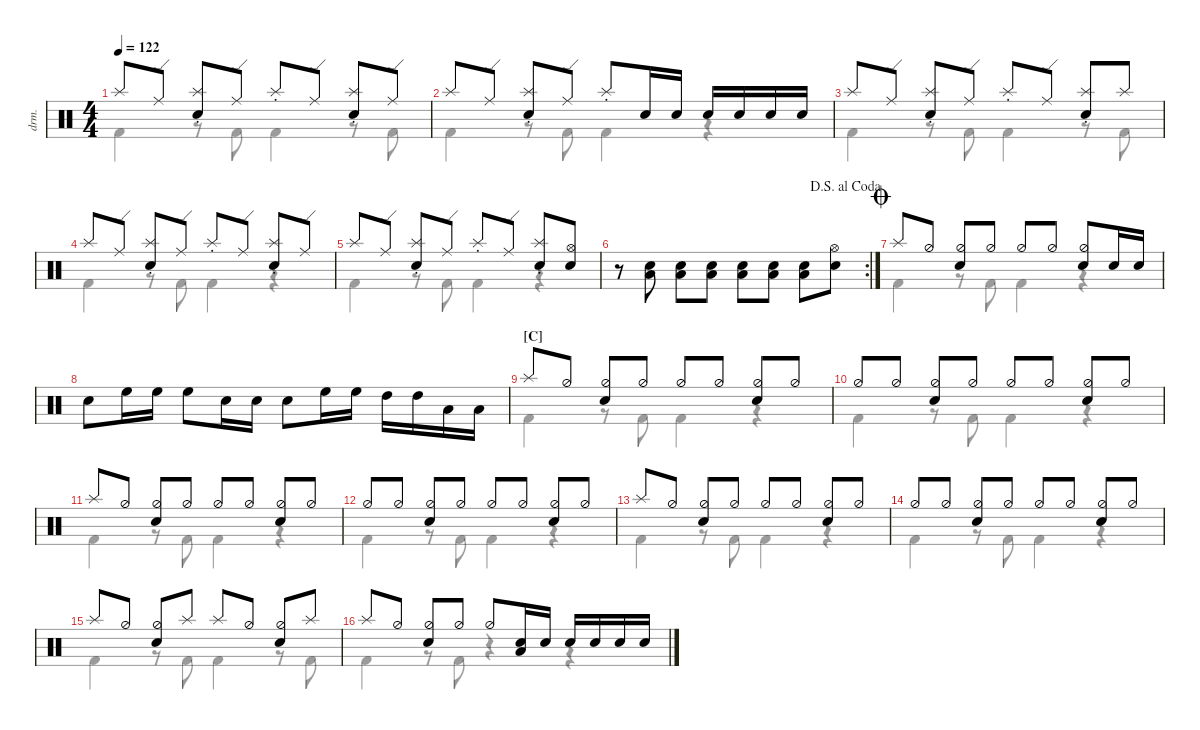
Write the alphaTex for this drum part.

\defaultSystemsLayout 4
\hideDynamics
\bracketExtendMode nobrackets
\track ("Drumkit" "drm.") {defaultSystemsLayout 4 instrument percussion}
\staff {score}
\articulation defaults
\voice
\ts (4 4)
\tempo 122
\clef neutral
\ks c "Splash (hit)".8{dy mf beam Up} "Ride (edge)".8{beam Up}
("Splash (choke)" "Snare (hit) 2").8{beam Up} "Ride (edge)".8{beam Up} "Splash (choke)".8{beam Up} "Ride (edge)".8{beam Up} ("Splash (choke)" "Snare (hit) 2").8{beam Up} "Ride (edge)".8{beam Up} |
"Splash (hit)".8{beam Up} "Ride (edge)".8{beam Up} ("Splash (choke)" "Snare (hit) 2").8{beam Up} "Ride (edge)".8{beam Up} "Splash (choke)".8{beam Up} "Snare (hit) 2".16{beam Up} "Snare (hit) 2".16{beam Up} "Snare (hit) 2".16{beam Up} "Snare (hit) 2".16{beam Up} "Snare (hit) 2".16{beam Up} "Snare (hit) 2".16{beam Up} |
"Splash (hit)".8{beam Up} "Ride (edge)".8{beam Up} ("Splash (choke)" "Snare (hit) 2").8{beam Up} "Ride (edge)".8{beam Up} "Splash (choke)".8{beam Up} "Ride (edge)".8{beam Up} ("Splash (choke)" "Snare (hit) 2").8{beam Up} "Splash (hit)".8{beam Up} |
"Splash (hit)".8{beam Up} "Ride (edge)".8{beam Up} ("Splash (choke)" "Snare (hit) 2").8{beam Up} "Ride (edge)".8{beam Up} "Splash (choke)".8{beam Up} "Ride (edge)".8{beam Up} ("Splash (choke)" "Snare (hit) 2").8{beam Up} "Ride (edge)".8{beam Up} |
"Splash (hit)".8{beam Up} "Ride (edge)".8{beam Up} ("Splash (choke)" "Snare (hit) 2").8{beam Up} "Ride (edge)".8{beam Up} "Splash (choke)".8{beam Up} "Ride (edge)".8{beam Up} ("Splash (choke)" "Snare (hit) 2").8{beam Up} ("Hi-Hat (open)" "Snare (hit) 2").8{beam Up} |
\rc 2
\jump dalsegnoalcoda
r.8{beam Down} ("Low Tom (hit)" "Snare (hit) 2").8{beam Down} ("Snare (hit) 2" "Low Tom (hit)").8{beam Down} ("Snare (hit) 2" "Low Tom (hit)").8{beam Down} ("Snare (hit) 2" "Low Tom (hit)").8{beam Down} ("Snare (hit) 2" "Low Tom (hit)").8{beam Down} ("Snare (hit) 2" "Low Tom (hit)").8{beam Down} ("Snare (hit) 2" "Hi-Hat (open)").8{beam Down} |
\jump coda "Splash (hit)".8{beam Up} "Hi-Hat (half)".8{beam Up}
("Hi-Hat (half)" "Snare (hit) 2").8{beam Up} "Hi-Hat (half)".8{beam Up} "Hi-Hat (half)".8{beam Up} "Hi-Hat (half)".8{beam Up} ("Hi-Hat (half)" "Snare (hit) 2").8{beam Up} "Snare (hit) 2".16{beam Up} "Snare (hit) 2".16{beam Up} |
"Snare (hit) 2".8{beam Down} "High Floor Tom (hit)".16{beam Down} "High Floor Tom (hit)".16{beam Down} "High Floor Tom (hit)".8{beam Down} "Snare (hit) 2".16{beam Down} "Snare (hit) 2".16{beam Down} "Snare (hit) 2".8{beam Down} "High Floor Tom (hit)".16{beam Down} "High Floor Tom (hit)".16{beam Down} "High Tom (hit)".16{beam Down} "High Tom (hit)".16{beam Down} "Low Tom (hit)".16{beam Down} "Low Tom (hit)".16{beam Down} |
\section ("C" "")
"Splash (hit)".8{beam Up} "Hi-Hat (half)".8{beam Up} ("Hi-Hat (half)" "Snare (hit) 2").8{beam Up} "Hi-Hat (half)".8{beam Up} "Hi-Hat (half)".8{beam Up} "Hi-Hat (half)".8{beam Up} ("Hi-Hat (half)" "Snare (hit) 2").8{beam Up} "Hi-Hat (half)".8{beam Up} |
"Hi-Hat (half)".8{beam Up} "Hi-Hat (half)".8{beam Up} ("Hi-Hat (half)" "Snare (hit) 2").8{beam Up} "Hi-Hat (half)".8{beam Up} "Hi-Hat (half)".8{beam Up} "Hi-Hat (half)".8{beam Up} ("Hi-Hat (half)" "Snare (hit) 2").8{beam Up} "Hi-Hat (half)".8{beam Up} |
"Splash (hit)".8{beam Up} "Hi-Hat (half)".8{beam Up} ("Hi-Hat (half)" "Snare (hit) 2").8{beam Up} "Hi-Hat (half)".8{beam Up} "Hi-Hat (half)".8{beam Up} "Hi-Hat (half)".8{beam Up} ("Hi-Hat (half)" "Snare (hit) 2").8{beam Up} "Hi-Hat (half)".8{beam Up} |
"Hi-Hat (half)".8{beam Up} "Hi-Hat (half)".8{beam Up} ("Hi-Hat (half)" "Snare (hit) 2").8{beam Up} "Hi-Hat (half)".8{beam Up} "Hi-Hat (half)".8{beam Up} "Hi-Hat (half)".8{beam Up} ("Hi-Hat (half)" "Snare (hit) 2").8{beam Up} "Hi-Hat (half)".8{beam Up} |
"Splash (hit)".8{beam Up} "Hi-Hat (half)".8{beam Up} ("Hi-Hat (half)" "Snare (hit) 2").8{beam Up} "Hi-Hat (half)".8{beam Up} "Hi-Hat (half)".8{beam Up} "Hi-Hat (half)".8{beam Up} ("Hi-Hat (half)" "Snare (hit) 2").8{beam Up} "Hi-Hat (half)".8{beam Up} |
"Hi-Hat (half)".8{beam Up} "Hi-Hat (half)".8{beam Up} ("Hi-Hat (half)" "Snare (hit) 2").8{beam Up} "Hi-Hat (half)".8{beam Up} "Hi-Hat (half)".8{beam Up} "Hi-Hat (half)".8{beam Up} ("Hi-Hat (half)" "Snare (hit) 2").8{beam Up} "Hi-Hat (half)".8{beam Up} |
"Splash (hit)".8{beam Up} "Hi-Hat (half)".8{beam Up} ("Hi-Hat (half)" "Snare (hit) 2").8{beam Up} "Splash (hit)".8{beam Up} "Splash (hit)".8{beam Up} "Hi-Hat (half)".8{beam Up} ("Hi-Hat (half)" "Snare (hit) 2").8{beam Up} "Splash (hit)".8{beam Up} |
"Splash (hit)".8{beam Up} "Hi-Hat (half)".8{beam Up} ("Hi-Hat (half)" "Snare (hit) 2").8{beam Up} "Hi-Hat (half)".8{beam Up} "Hi-Hat (half)".8{beam Up} ("Snare (hit) 2" "Low Tom (hit)").16{beam Up} "Snare (hit) 2".16{beam Up} "Snare (hit) 2".16{beam Up} "Snare (hit) 2".16{beam Up} "Snare (hit) 2".16{beam Up} "Snare (hit) 2".16{beam Up}
\voice
\clef neutral
\ottava regular
\simile none
\ks c
|
|
|
|
|
|
|
|
|
|
|
|
|
|
|
\voice
\clef neutral
\ottava regular
\simile none
\ks c "Kick (hit) 2".4{dy mf beam Down}
r.8{beam Down} "Kick (hit) 2".8{beam Down} "Kick (hit) 2".4{beam Down} r.8{beam Down} "Kick (hit) 2".8{beam Down} |
"Kick (hit) 2".4{beam Down} r.8{beam Down} "Kick (hit) 2".8{beam Down} "Kick (hit) 2".4{beam Down} r.4{beam Down} |
"Kick (hit) 2".4{beam Down} r.8{beam Down} "Kick (hit) 2".8{beam Down} "Kick (hit) 2".4{beam Down} r.8{beam Down} "Kick (hit) 2".8{beam Down} |
"Kick (hit) 2".4{beam Down} r.8{beam Down} "Kick (hit) 2".8{beam Down} "Kick (hit) 2".4{beam Down} r.4{beam Down} |
"Kick (hit) 2".4{beam Down} r.8{beam Down} "Kick (hit) 2".8{beam Down} "Kick (hit) 2".4{beam Down} r.4{beam Down} |
|
"Kick (hit) 2".4{beam Down} r.8{beam Down} "Kick (hit) 2".8{beam Down} "Kick (hit) 2".4{beam Down} r.4{beam Down} |
|
"Kick (hit) 2".4{beam Down} r.8{beam Down} "Kick (hit) 2".8{beam Down} "Kick (hit) 2".4{beam Down} r.4{beam Down} |
"Kick (hit) 2".4{beam Down} r.8{beam Down} "Kick (hit) 2".8{beam Down} "Kick (hit) 2".4{beam Down} r.4{beam Down} |
"Kick (hit) 2".4{beam Down} r.8{beam Down} "Kick (hit) 2".8{beam Down} "Kick (hit) 2".4{beam Down} r.4{beam Down} |
"Kick (hit) 2".4{beam Down} r.8{beam Down} "Kick (hit) 2".8{beam Down} "Kick (hit) 2".4{beam Down} r.4{beam Down} |
"Kick (hit) 2".4{beam Down} r.8{beam Down} "Kick (hit) 2".8{beam Down} "Kick (hit) 2".4{beam Down} r.4{beam Down} |
"Kick (hit) 2".4{beam Down} r.8{beam Down} "Kick (hit) 2".8{beam Down} "Kick (hit) 2".4{beam Down} r.4{beam Down} |
"Kick (hit) 2".4{beam Down} r.8{beam Down} "Kick (hit) 2".8{beam Down} "Kick (hit) 2".4{beam Down} r.8{beam Down} "Kick (hit) 2".8{beam Down} |
"Kick (hit) 2".4{beam Down} r.8{beam Down} "Kick (hit) 2".8{beam Down} r.4{beam Down} r.4{beam Down}
